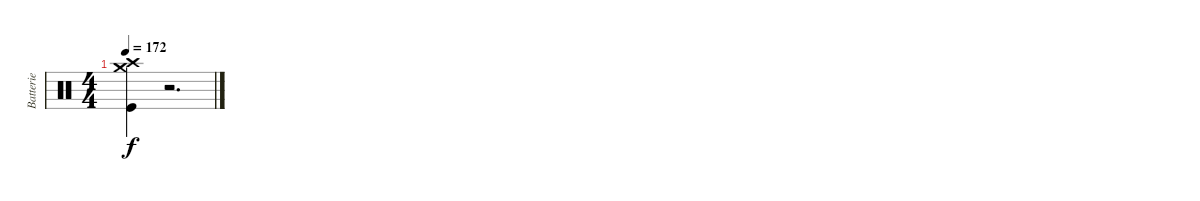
\track ("Batterie" "Batterie") {instrument percussion}
\staff {score}
\articulation defaults
\ts (4 4)
\tempo 172
\clef neutral
\ks c
("Crash high (hit)" "Crash medium (hit)" "Kick (hit)").4{dy f} r.2{d}
